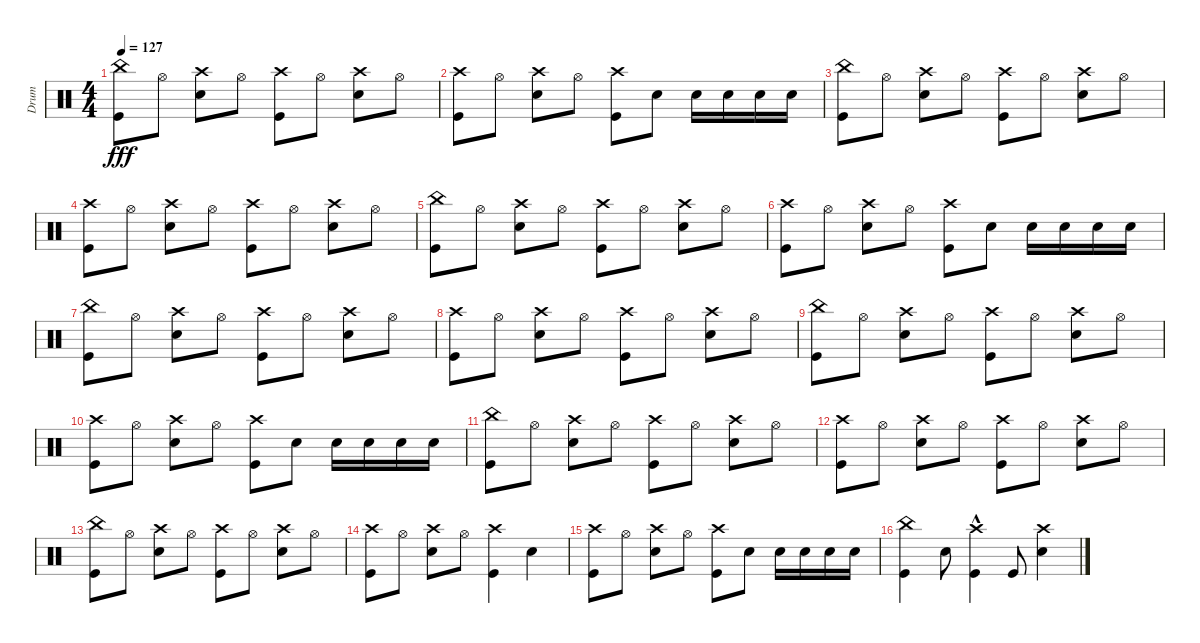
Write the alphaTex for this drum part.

\track ("Drum" "Drum") {instrument percussion}
\staff {score}
\articulation defaults
\ts (4 4)
\tempo 127
\clef neutral
\ks c
("Kick (hit)" "China (hit)").8{dy fff} "Hi-Hat (open)".8 ("Crash high (hit)" "Electric Snare (hit)").8 "Hi-Hat (open)".8 ("Kick (hit)" "Crash high (hit)").8 "Hi-Hat (open)".8 ("Crash high (hit)" "Electric Snare (hit)").8 "Hi-Hat (open)".8 |
("Kick (hit)" "Crash high (hit)").8 "Hi-Hat (open)".8 ("Crash high (hit)" "Electric Snare (hit)").8 "Hi-Hat (open)".8 ("Kick (hit)" "Crash high (hit)").8 "Electric Snare (hit)".8 "Electric Snare (hit)".16 "Electric Snare (hit)".16 "Electric Snare (hit)".16 "Electric Snare (hit)".16 |
("Kick (hit)" "China (hit)").8 "Hi-Hat (open)".8 ("Crash high (hit)" "Electric Snare (hit)").8 "Hi-Hat (open)".8 ("Kick (hit)" "Crash high (hit)").8 "Hi-Hat (open)".8 ("Crash high (hit)" "Electric Snare (hit)").8 "Hi-Hat (open)".8 |
("Kick (hit)" "Crash high (hit)").8 "Hi-Hat (open)".8 ("Crash high (hit)" "Electric Snare (hit)").8 "Hi-Hat (open)".8 ("Kick (hit)" "Crash high (hit)").8 "Hi-Hat (open)".8 ("Crash high (hit)" "Electric Snare (hit)").8 "Hi-Hat (open)".8 |
("Kick (hit)" "China (hit)").8 "Hi-Hat (open)".8 ("Crash high (hit)" "Electric Snare (hit)").8 "Hi-Hat (open)".8 ("Kick (hit)" "Crash high (hit)").8 "Hi-Hat (open)".8 ("Crash high (hit)" "Electric Snare (hit)").8 "Hi-Hat (open)".8 |
("Kick (hit)" "Crash high (hit)").8 "Hi-Hat (open)".8 ("Crash high (hit)" "Electric Snare (hit)").8 "Hi-Hat (open)".8 ("Kick (hit)" "Crash high (hit)").8 "Electric Snare (hit)".8 "Electric Snare (hit)".16 "Electric Snare (hit)".16 "Electric Snare (hit)".16 "Electric Snare (hit)".16 |
("Kick (hit)" "China (hit)").8 "Hi-Hat (open)".8 ("Crash high (hit)" "Electric Snare (hit)").8 "Hi-Hat (open)".8 ("Kick (hit)" "Crash high (hit)").8 "Hi-Hat (open)".8 ("Crash high (hit)" "Electric Snare (hit)").8 "Hi-Hat (open)".8 |
("Kick (hit)" "Crash high (hit)").8 "Hi-Hat (open)".8 ("Crash high (hit)" "Electric Snare (hit)").8 "Hi-Hat (open)".8 ("Kick (hit)" "Crash high (hit)").8 "Hi-Hat (open)".8 ("Crash high (hit)" "Electric Snare (hit)").8 "Hi-Hat (open)".8 |
("Kick (hit)" "China (hit)").8 "Hi-Hat (open)".8 ("Crash high (hit)" "Electric Snare (hit)").8 "Hi-Hat (open)".8 ("Kick (hit)" "Crash high (hit)").8 "Hi-Hat (open)".8 ("Crash high (hit)" "Electric Snare (hit)").8 "Hi-Hat (open)".8 |
("Kick (hit)" "Crash high (hit)").8 "Hi-Hat (open)".8 ("Crash high (hit)" "Electric Snare (hit)").8 "Hi-Hat (open)".8 ("Kick (hit)" "Crash high (hit)").8 "Electric Snare (hit)".8 "Electric Snare (hit)".16 "Electric Snare (hit)".16 "Electric Snare (hit)".16 "Electric Snare (hit)".16 |
("Kick (hit)" "China (hit)").8 "Hi-Hat (open)".8 ("Crash high (hit)" "Electric Snare (hit)").8 "Hi-Hat (open)".8 ("Kick (hit)" "Crash high (hit)").8 "Hi-Hat (open)".8 ("Crash high (hit)" "Electric Snare (hit)").8 "Hi-Hat (open)".8 |
("Kick (hit)" "Crash high (hit)").8 "Hi-Hat (open)".8 ("Crash high (hit)" "Electric Snare (hit)").8 "Hi-Hat (open)".8 ("Kick (hit)" "Crash high (hit)").8 "Hi-Hat (open)".8 ("Crash high (hit)" "Electric Snare (hit)").8 "Hi-Hat (open)".8 |
("Kick (hit)" "China (hit)").8 "Hi-Hat (open)".8 ("Crash high (hit)" "Electric Snare (hit)").8 "Hi-Hat (open)".8 ("Kick (hit)" "Crash high (hit)").8 "Hi-Hat (open)".8 ("Crash high (hit)" "Electric Snare (hit)").8 "Hi-Hat (open)".8 |
("Kick (hit)" "Crash high (hit)").8 "Hi-Hat (open)".8 ("Crash high (hit)" "Electric Snare (hit)").8 "Hi-Hat (open)".8 ("Kick (hit)" "Crash high (hit)").4 "Electric Snare (hit)".4 |
("Kick (hit)" "Crash high (hit)").8 "Hi-Hat (open)".8 ("Crash high (hit)" "Electric Snare (hit)").8 "Hi-Hat (open)".8 ("Kick (hit)" "Crash high (hit)").8 "Electric Snare (hit)".8 "Electric Snare (hit)".16 "Electric Snare (hit)".16 "Electric Snare (hit)".16 "Electric Snare (hit)".16 |
("Kick (hit)" "China (hit)").4 "Electric Snare (hit)".8 ("Crash high (hit)"{hac} "Kick (hit)").4 "Kick (hit)".8 ("Crash high (hit)" "Electric Snare (hit)").4
